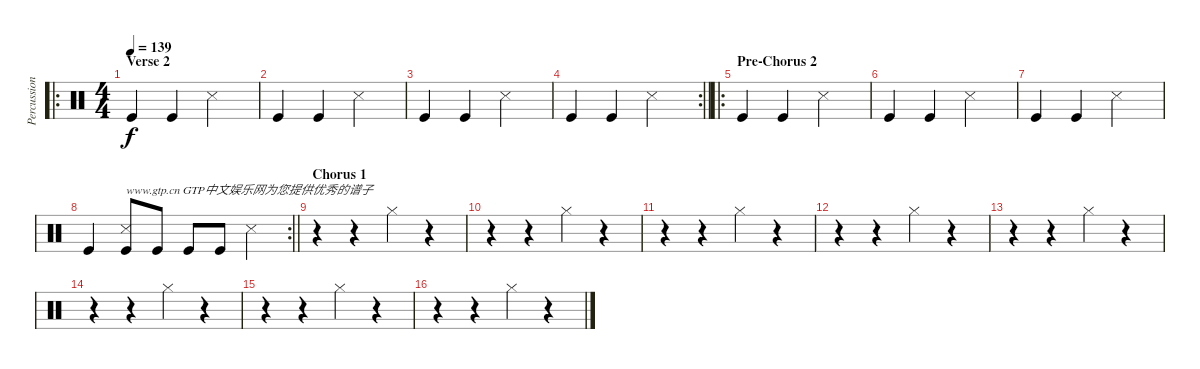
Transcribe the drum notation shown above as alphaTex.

\track ("Percussion" "Percussion") {instrument percussion}
\staff {score}
\articulation defaults
\ro
\ts (4 4)
\section ("" "Verse 2")
\tempo 139
\clef neutral
\ks c "Kick (hit)".4{dy f volume 7} "Kick (hit)".4 "Snare (side stick) 3".2
|
"Kick (hit)".4 "Kick (hit)".4 "Snare (side stick) 3".2 |
"Kick (hit)".4 "Kick (hit)".4 "Snare (side stick) 3".2 |
\rc 2
\barLineRight lightlight "Kick (hit)".4 "Kick (hit)".4 "Snare (side stick) 3".2
|
\ro
\section ("" "Pre-Chorus 2")
"Kick (hit)".4 "Kick (hit)".4 "Snare (side stick) 3".2 |
"Kick (hit)".4 "Kick (hit)".4 "Snare (side stick) 3".2 |
"Kick (hit)".4 "Kick (hit)".4 "Snare (side stick) 3".2 |
\rc 2
\barLineRight lightlight "Kick (hit)".4
("Kick (hit)" "Snare (side stick) 3").8{txt "www.gtp.cn GTP中文娱乐网为您提供优秀的谱子"} "Kick (hit)".8 "Kick (hit)".8 "Kick (hit)".8 "Snare (side stick) 3".4 |
\section ("" "Chorus 1")
r.4{volume 10} r.4 "Hi-Hat (closed)".4 r.4 |
r.4 r.4 "Hi-Hat (closed)".4 r.4 |
r.4 r.4 "Hi-Hat (closed)".4 r.4 |
r.4 r.4 "Hi-Hat (closed)".4 r.4 |
r.4 r.4 "Hi-Hat (closed)".4 r.4 |
r.4 r.4 "Hi-Hat (closed)".4 r.4 |
r.4 r.4 "Hi-Hat (closed)".4 r.4 |
r.4 r.4 "Hi-Hat (closed)".4 r.4
